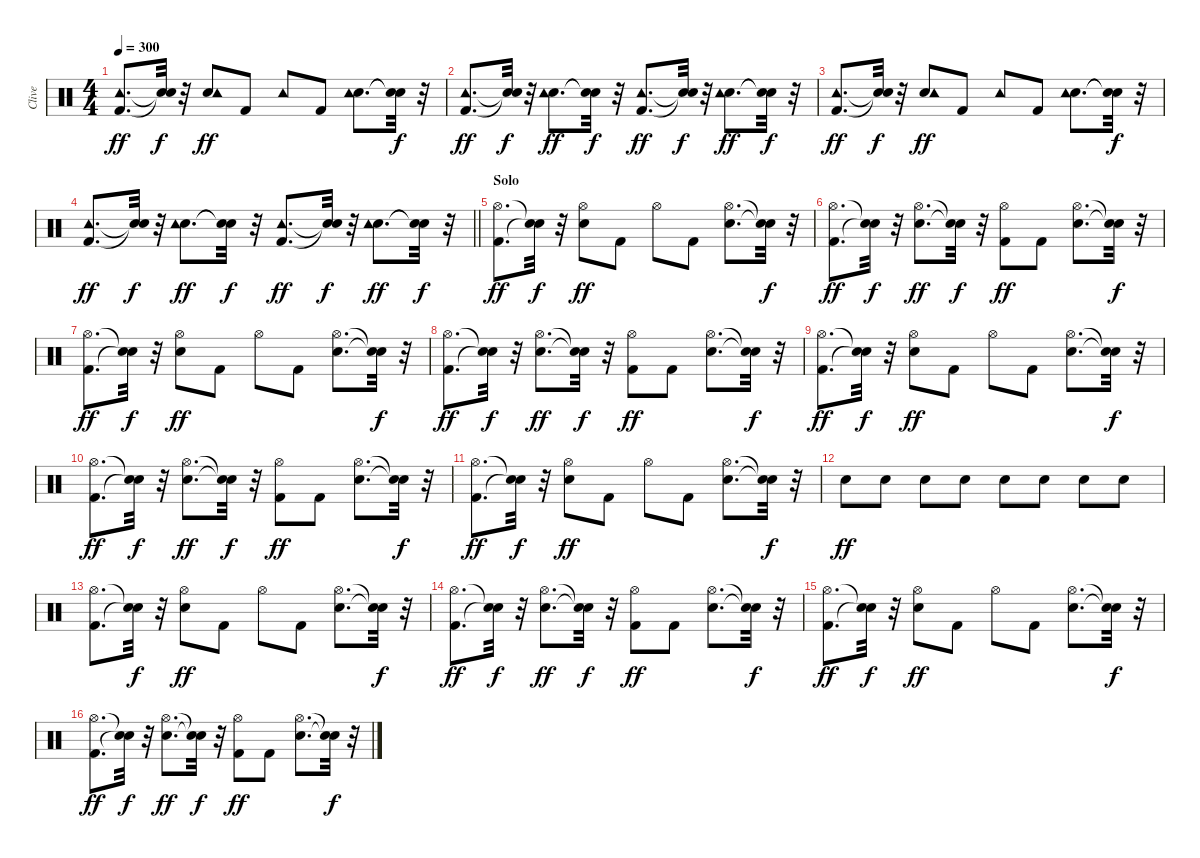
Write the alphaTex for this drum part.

\track ("Clive" "Clive") {instrument percussion}
\staff {score}
\articulation defaults
\ts (4 4)
\tempo 300
\clef neutral
\ks c
("Kick (hit) 2" "Tambourine (hit)").8{d dy ff} ("Snare (hit)"{t} "Snare (hit)"{t}).32{dy f} r.32 ("Snare (hit) 2" "Tambourine (hit)").8{dy ff} "Kick (hit) 2".8 "Tambourine (hit)".8 "Kick (hit) 2".8 ("Snare (hit) 2" "Tambourine (hit)").8{d} ("Snare (hit)"{t} "Snare (hit)"{t}).32{dy f} r.32 |
("Kick (hit) 2" "Tambourine (hit)").8{d dy ff} ("Snare (hit)"{t} "Snare (hit)"{t}).32{dy f} r.32 ("Snare (hit) 2" "Tambourine (hit)").8{d dy ff} ("Snare (hit)"{t} "Snare (hit)"{t}).32{dy f} r.32 ("Kick (hit) 2" "Tambourine (hit)").8{d dy ff} ("Snare (hit)"{t} "Snare (hit)"{t}).32{dy f} r.32 ("Snare (hit) 2" "Tambourine (hit)").8{d dy ff} ("Snare (hit)"{t} "Snare (hit)"{t}).32{dy f} r.32 |
("Kick (hit) 2" "Tambourine (hit)").8{d dy ff} ("Snare (hit)"{t} "Snare (hit)"{t}).32{dy f} r.32 ("Snare (hit) 2" "Tambourine (hit)").8{dy ff} "Kick (hit) 2".8 "Tambourine (hit)".8 "Kick (hit) 2".8 ("Snare (hit) 2" "Tambourine (hit)").8{d} ("Snare (hit)"{t} "Snare (hit)"{t}).32{dy f} r.32 |
\barLineRight lightlight
("Kick (hit) 2" "Tambourine (hit)").8{d dy ff} ("Snare (hit)"{t} "Snare (hit)"{t}).32{dy f} r.32 ("Snare (hit) 2" "Tambourine (hit)").8{d dy ff} ("Snare (hit)"{t} "Snare (hit)"{t}).32{dy f} r.32 ("Kick (hit) 2" "Tambourine (hit)").8{d dy ff} ("Snare (hit)"{t} "Snare (hit)"{t}).32{dy f} r.32 ("Snare (hit) 2" "Tambourine (hit)").8{d dy ff} ("Snare (hit)"{t} "Snare (hit)"{t}).32{dy f} r.32 |
\section ("" "Solo")
("Kick (hit) 2" "Hi-Hat (open)").8{d dy ff} ("Snare (hit)"{t} "Snare (hit)"{t}).32{dy f} r.32 ("Snare (hit) 2" "Hi-Hat (open)").8{dy ff} "Kick (hit) 2".8 "Hi-Hat (open)".8 "Kick (hit) 2".8 ("Snare (hit) 2" "Hi-Hat (open)").8{d} ("Snare (hit)"{t} "Snare (hit)"{t}).32{dy f} r.32 |
("Kick (hit) 2" "Hi-Hat (open)").8{d dy ff} ("Snare (hit)"{t} "Snare (hit)"{t}).32{dy f} r.32 ("Snare (hit) 2" "Hi-Hat (open)").8{d dy ff} ("Snare (hit)"{t} "Snare (hit)"{t}).32{dy f} r.32 ("Kick (hit) 2" "Hi-Hat (open)").8{dy ff} "Kick (hit) 2".8 ("Snare (hit) 2" "Hi-Hat (open)").8{d} ("Snare (hit)"{t} "Snare (hit)"{t}).32{dy f} r.32 |
("Kick (hit) 2" "Hi-Hat (open)").8{d dy ff} ("Snare (hit)"{t} "Snare (hit)"{t}).32{dy f} r.32 ("Snare (hit) 2" "Hi-Hat (open)").8{dy ff} "Kick (hit) 2".8 "Hi-Hat (open)".8 "Kick (hit) 2".8 ("Snare (hit) 2" "Hi-Hat (open)").8{d} ("Snare (hit)"{t} "Snare (hit)"{t}).32{dy f} r.32 |
("Kick (hit) 2" "Hi-Hat (open)").8{d dy ff} ("Snare (hit)"{t} "Snare (hit)"{t}).32{dy f} r.32 ("Snare (hit) 2" "Hi-Hat (open)").8{d dy ff} ("Snare (hit)"{t} "Snare (hit)"{t}).32{dy f} r.32 ("Kick (hit) 2" "Hi-Hat (open)").8{dy ff} "Kick (hit) 2".8 ("Snare (hit) 2" "Hi-Hat (open)").8{d} ("Snare (hit)"{t} "Snare (hit)"{t}).32{dy f} r.32 |
("Kick (hit) 2" "Hi-Hat (open)").8{d dy ff} ("Snare (hit)"{t} "Snare (hit)"{t}).32{dy f} r.32 ("Snare (hit) 2" "Hi-Hat (open)").8{dy ff} "Kick (hit) 2".8 "Hi-Hat (open)".8 "Kick (hit) 2".8 ("Snare (hit) 2" "Hi-Hat (open)").8{d} ("Snare (hit)"{t} "Snare (hit)"{t}).32{dy f} r.32 |
("Kick (hit) 2" "Hi-Hat (open)").8{d dy ff} ("Snare (hit)"{t} "Snare (hit)"{t}).32{dy f} r.32 ("Snare (hit) 2" "Hi-Hat (open)").8{d dy ff} ("Snare (hit)"{t} "Snare (hit)"{t}).32{dy f} r.32 ("Kick (hit) 2" "Hi-Hat (open)").8{dy ff} "Kick (hit) 2".8 ("Snare (hit) 2" "Hi-Hat (open)").8{d} ("Snare (hit)"{t} "Snare (hit)"{t}).32{dy f} r.32 |
("Kick (hit) 2" "Hi-Hat (open)").8{d dy ff} ("Snare (hit)"{t} "Snare (hit)"{t}).32{dy f} r.32 ("Snare (hit) 2" "Hi-Hat (open)").8{dy ff} "Kick (hit) 2".8 "Hi-Hat (open)".8 "Kick (hit) 2".8 ("Snare (hit) 2" "Hi-Hat (open)").8{d} ("Snare (hit)"{t} "Snare (hit)"{t}).32{dy f} r.32 |
"Snare (hit) 2".8{dy ff} "Snare (hit) 2".8 "Snare (hit) 2".8 "Snare (hit) 2".8 "Snare (hit) 2".8 "Snare (hit) 2".8 "Snare (hit) 2".8 "Snare (hit) 2".8 |
("Kick (hit) 2" "Hi-Hat (open)").8{d} ("Snare (hit)"{t} "Snare (hit)"{t}).32{dy f} r.32 ("Snare (hit) 2" "Hi-Hat (open)").8{dy ff} "Kick (hit) 2".8 "Hi-Hat (open)".8 "Kick (hit) 2".8 ("Snare (hit) 2" "Hi-Hat (open)").8{d} ("Snare (hit)"{t} "Snare (hit)"{t}).32{dy f} r.32 |
("Kick (hit) 2" "Hi-Hat (open)").8{d dy ff} ("Snare (hit)"{t} "Snare (hit)"{t}).32{dy f} r.32 ("Snare (hit) 2" "Hi-Hat (open)").8{d dy ff} ("Snare (hit)"{t} "Snare (hit)"{t}).32{dy f} r.32 ("Kick (hit) 2" "Hi-Hat (open)").8{dy ff} "Kick (hit) 2".8 ("Snare (hit) 2" "Hi-Hat (open)").8{d} ("Snare (hit)"{t} "Snare (hit)"{t}).32{dy f} r.32 |
("Kick (hit) 2" "Hi-Hat (open)").8{d dy ff} ("Snare (hit)"{t} "Snare (hit)"{t}).32{dy f} r.32 ("Snare (hit) 2" "Hi-Hat (open)").8{dy ff} "Kick (hit) 2".8 "Hi-Hat (open)".8 "Kick (hit) 2".8 ("Snare (hit) 2" "Hi-Hat (open)").8{d} ("Snare (hit)"{t} "Snare (hit)"{t}).32{dy f} r.32 |
("Kick (hit) 2" "Hi-Hat (open)").8{d dy ff} ("Snare (hit)"{t} "Snare (hit)"{t}).32{dy f} r.32 ("Snare (hit) 2" "Hi-Hat (open)").8{d dy ff} ("Snare (hit)"{t} "Snare (hit)"{t}).32{dy f} r.32 ("Kick (hit) 2" "Hi-Hat (open)").8{dy ff} "Kick (hit) 2".8 ("Snare (hit) 2" "Hi-Hat (open)").8{d} ("Snare (hit)"{t} "Snare (hit)"{t}).32{dy f} r.32
